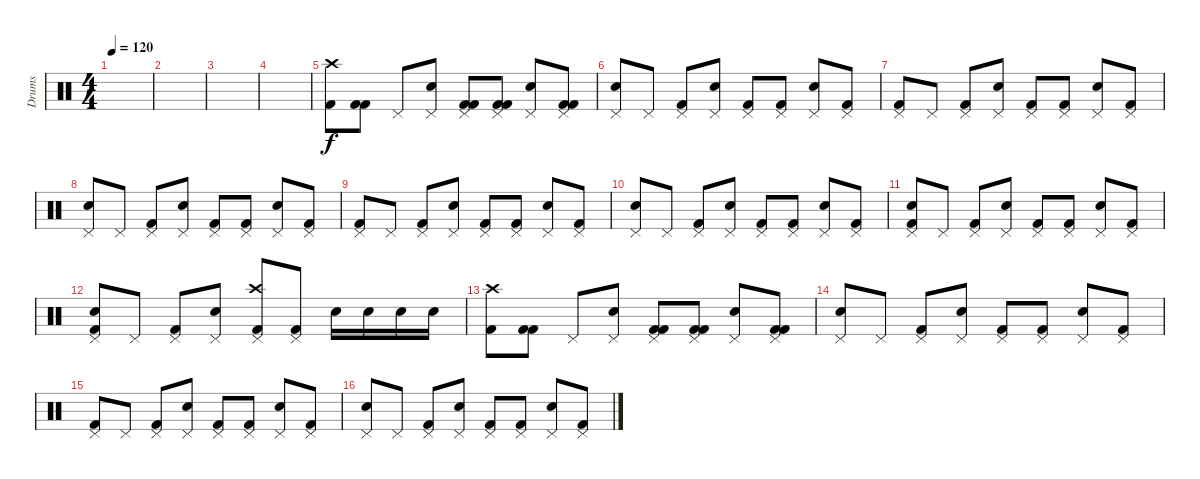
\track ("Drums" "Drums") {instrument percussion}
\staff {score}
\articulation defaults
\ts (4 4)
\tempo 120
\clef neutral
\ks c
|
|
|
|
("Kick (hit) 2" "Crash high (hit)").8 ("Kick (hit) 2" "Kick (hit) 2").8 "Pedal Hi-Hat (hit)".8 ("Snare (hit) 2" "Pedal Hi-Hat (hit)").8 ("Kick (hit) 2" "Kick (hit) 2" "Pedal Hi-Hat (hit)").8 ("Kick (hit) 2" "Kick (hit) 2" "Pedal Hi-Hat (hit)").8 ("Snare (hit) 2" "Pedal Hi-Hat (hit)").8 ("Kick (hit) 2" "Kick (hit) 2" "Pedal Hi-Hat (hit)").8 |
("Snare (hit) 2" "Pedal Hi-Hat (hit)").8 "Pedal Hi-Hat (hit)".8 ("Kick (hit) 2" "Pedal Hi-Hat (hit)").8 ("Snare (hit) 2" "Pedal Hi-Hat (hit)").8 ("Kick (hit) 2" "Pedal Hi-Hat (hit)").8 ("Kick (hit) 2" "Pedal Hi-Hat (hit)").8 ("Snare (hit) 2" "Pedal Hi-Hat (hit)").8 ("Kick (hit) 2" "Pedal Hi-Hat (hit)").8 |
("Kick (hit) 2" "Pedal Hi-Hat (hit)").8 "Pedal Hi-Hat (hit)".8 ("Kick (hit) 2" "Pedal Hi-Hat (hit)").8 ("Snare (hit) 2" "Pedal Hi-Hat (hit)").8 ("Kick (hit) 2" "Pedal Hi-Hat (hit)").8 ("Kick (hit) 2" "Pedal Hi-Hat (hit)").8 ("Snare (hit) 2" "Pedal Hi-Hat (hit)").8 ("Kick (hit) 2" "Pedal Hi-Hat (hit)").8 |
("Snare (hit) 2" "Pedal Hi-Hat (hit)").8 "Pedal Hi-Hat (hit)".8 ("Kick (hit) 2" "Pedal Hi-Hat (hit)").8 ("Snare (hit) 2" "Pedal Hi-Hat (hit)").8 ("Kick (hit) 2" "Pedal Hi-Hat (hit)").8 ("Kick (hit) 2" "Pedal Hi-Hat (hit)").8 ("Snare (hit) 2" "Pedal Hi-Hat (hit)").8 ("Kick (hit) 2" "Pedal Hi-Hat (hit)").8 |
("Kick (hit) 2" "Pedal Hi-Hat (hit)").8 "Pedal Hi-Hat (hit)".8 ("Kick (hit) 2" "Pedal Hi-Hat (hit)").8 ("Snare (hit) 2" "Pedal Hi-Hat (hit)").8 ("Kick (hit) 2" "Pedal Hi-Hat (hit)").8 ("Kick (hit) 2" "Pedal Hi-Hat (hit)").8 ("Snare (hit) 2" "Pedal Hi-Hat (hit)").8 ("Kick (hit) 2" "Pedal Hi-Hat (hit)").8 |
("Snare (hit) 2" "Pedal Hi-Hat (hit)").8 "Pedal Hi-Hat (hit)".8 ("Kick (hit) 2" "Pedal Hi-Hat (hit)").8 ("Snare (hit) 2" "Pedal Hi-Hat (hit)").8 ("Kick (hit) 2" "Pedal Hi-Hat (hit)").8 ("Kick (hit) 2" "Pedal Hi-Hat (hit)").8 ("Snare (hit) 2" "Pedal Hi-Hat (hit)").8 ("Kick (hit) 2" "Pedal Hi-Hat (hit)").8 |
("Kick (hit) 2" "Snare (hit) 2" "Pedal Hi-Hat (hit)").8 "Pedal Hi-Hat (hit)".8 ("Kick (hit) 2" "Pedal Hi-Hat (hit)").8 ("Snare (hit) 2" "Pedal Hi-Hat (hit)").8 ("Kick (hit) 2" "Pedal Hi-Hat (hit)").8 ("Kick (hit) 2" "Pedal Hi-Hat (hit)").8 ("Snare (hit) 2" "Pedal Hi-Hat (hit)").8 ("Kick (hit) 2" "Pedal Hi-Hat (hit)").8 |
("Kick (hit) 2" "Snare (hit) 2" "Pedal Hi-Hat (hit)").8 "Pedal Hi-Hat (hit)".8 ("Kick (hit) 2" "Pedal Hi-Hat (hit)").8 ("Snare (hit) 2" "Pedal Hi-Hat (hit)").8 ("Crash high (hit)" "Kick (hit) 2" "Pedal Hi-Hat (hit)").8 ("Kick (hit) 2" "Pedal Hi-Hat (hit)").8 "Snare (hit) 2".16 "Snare (hit) 2".16 "Snare (hit) 2".16 "Snare (hit) 2".16 |
("Kick (hit) 2" "Crash high (hit)").8 ("Kick (hit) 2" "Kick (hit) 2").8 "Pedal Hi-Hat (hit)".8 ("Snare (hit) 2" "Pedal Hi-Hat (hit)").8 ("Kick (hit) 2" "Kick (hit) 2" "Pedal Hi-Hat (hit)").8 ("Kick (hit) 2" "Kick (hit) 2" "Pedal Hi-Hat (hit)").8 ("Snare (hit) 2" "Pedal Hi-Hat (hit)").8 ("Kick (hit) 2" "Kick (hit) 2" "Pedal Hi-Hat (hit)").8 |
("Snare (hit) 2" "Pedal Hi-Hat (hit)").8 "Pedal Hi-Hat (hit)".8 ("Kick (hit) 2" "Pedal Hi-Hat (hit)").8 ("Snare (hit) 2" "Pedal Hi-Hat (hit)").8 ("Kick (hit) 2" "Pedal Hi-Hat (hit)").8 ("Kick (hit) 2" "Pedal Hi-Hat (hit)").8 ("Snare (hit) 2" "Pedal Hi-Hat (hit)").8 ("Kick (hit) 2" "Pedal Hi-Hat (hit)").8 |
("Kick (hit) 2" "Pedal Hi-Hat (hit)").8 "Pedal Hi-Hat (hit)".8 ("Kick (hit) 2" "Pedal Hi-Hat (hit)").8 ("Snare (hit) 2" "Pedal Hi-Hat (hit)").8 ("Kick (hit) 2" "Pedal Hi-Hat (hit)").8 ("Kick (hit) 2" "Pedal Hi-Hat (hit)").8 ("Snare (hit) 2" "Pedal Hi-Hat (hit)").8 ("Kick (hit) 2" "Pedal Hi-Hat (hit)").8 |
("Snare (hit) 2" "Pedal Hi-Hat (hit)").8 "Pedal Hi-Hat (hit)".8 ("Kick (hit) 2" "Pedal Hi-Hat (hit)").8 ("Snare (hit) 2" "Pedal Hi-Hat (hit)").8 ("Kick (hit) 2" "Pedal Hi-Hat (hit)").8 ("Kick (hit) 2" "Pedal Hi-Hat (hit)").8 ("Snare (hit) 2" "Pedal Hi-Hat (hit)").8 ("Kick (hit) 2" "Pedal Hi-Hat (hit)").8
